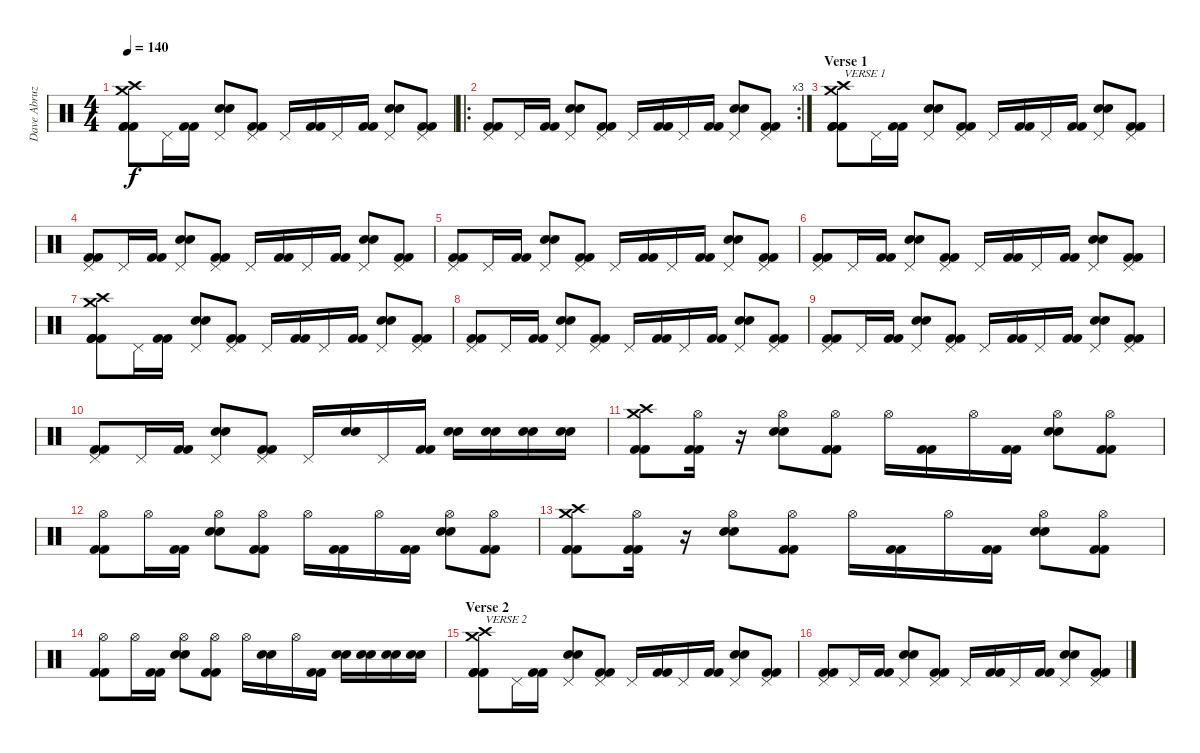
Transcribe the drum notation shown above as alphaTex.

\track ("Dave Abruzzese" "Dave Abruz") {instrument percussion}
\staff {score}
\articulation defaults
\ts (4 4)
\tempo 140
\clef neutral
\ks c
("Crash medium (hit)" "Kick (hit) 2" "Kick (hit) 2" "Crash high (hit)" "Kick (hit) 2").8{dy f} "Pedal Hi-Hat (hit)".16 ("Kick (hit) 2" "Kick (hit) 2").16 ("Electric Snare (hit)" "Electric Snare (hit)" "Pedal Hi-Hat (hit)").8 ("Kick (hit) 2" "Kick (hit) 2" "Pedal Hi-Hat (hit)").8 "Pedal Hi-Hat (hit)".16 ("Kick (hit) 2" "Kick (hit) 2").16 "Pedal Hi-Hat (hit)".16 ("Kick (hit) 2" "Kick (hit) 2").16 ("Electric Snare (hit)" "Electric Snare (hit)" "Pedal Hi-Hat (hit)").8 ("Kick (hit) 2" "Kick (hit) 2" "Pedal Hi-Hat (hit)").8 |
\ro
\rc 3
("Kick (hit) 2" "Kick (hit) 2" "Pedal Hi-Hat (hit)").8 "Pedal Hi-Hat (hit)".16 ("Kick (hit) 2" "Kick (hit) 2").16 ("Electric Snare (hit)" "Electric Snare (hit)" "Pedal Hi-Hat (hit)").8 ("Kick (hit) 2" "Kick (hit) 2" "Pedal Hi-Hat (hit)").8 "Pedal Hi-Hat (hit)".16 ("Kick (hit) 2" "Kick (hit) 2").16 "Pedal Hi-Hat (hit)".16 ("Kick (hit) 2" "Kick (hit) 2").16 ("Electric Snare (hit)" "Electric Snare (hit)" "Pedal Hi-Hat (hit)").8 ("Kick (hit) 2" "Kick (hit) 2" "Pedal Hi-Hat (hit)").8 |
\section ("" "Verse 1")
("Crash medium (hit)" "Kick (hit) 2" "Kick (hit) 2" "Crash high (hit)" "Kick (hit) 2").8{txt "VERSE 1"} "Pedal Hi-Hat (hit)".16 ("Kick (hit) 2" "Kick (hit) 2").16 ("Electric Snare (hit)" "Electric Snare (hit)" "Pedal Hi-Hat (hit)").8 ("Kick (hit) 2" "Kick (hit) 2" "Pedal Hi-Hat (hit)").8 "Pedal Hi-Hat (hit)".16 ("Kick (hit) 2" "Kick (hit) 2").16 "Pedal Hi-Hat (hit)".16 ("Kick (hit) 2" "Kick (hit) 2").16 ("Electric Snare (hit)" "Electric Snare (hit)" "Pedal Hi-Hat (hit)").8 ("Kick (hit) 2" "Kick (hit) 2" "Pedal Hi-Hat (hit)").8 |
("Kick (hit) 2" "Kick (hit) 2" "Pedal Hi-Hat (hit)").8 "Pedal Hi-Hat (hit)".16 ("Kick (hit) 2" "Kick (hit) 2").16 ("Electric Snare (hit)" "Electric Snare (hit)" "Pedal Hi-Hat (hit)").8 ("Kick (hit) 2" "Kick (hit) 2" "Pedal Hi-Hat (hit)").8 "Pedal Hi-Hat (hit)".16 ("Kick (hit) 2" "Kick (hit) 2").16 "Pedal Hi-Hat (hit)".16 ("Kick (hit) 2" "Kick (hit) 2").16 ("Electric Snare (hit)" "Electric Snare (hit)" "Pedal Hi-Hat (hit)").8 ("Kick (hit) 2" "Kick (hit) 2" "Pedal Hi-Hat (hit)").8 |
("Kick (hit) 2" "Kick (hit) 2" "Pedal Hi-Hat (hit)").8 "Pedal Hi-Hat (hit)".16 ("Kick (hit) 2" "Kick (hit) 2").16 ("Electric Snare (hit)" "Electric Snare (hit)" "Pedal Hi-Hat (hit)").8 ("Kick (hit) 2" "Kick (hit) 2" "Pedal Hi-Hat (hit)").8 "Pedal Hi-Hat (hit)".16 ("Kick (hit) 2" "Kick (hit) 2").16 "Pedal Hi-Hat (hit)".16 ("Kick (hit) 2" "Kick (hit) 2").16 ("Electric Snare (hit)" "Electric Snare (hit)" "Pedal Hi-Hat (hit)").8 ("Kick (hit) 2" "Kick (hit) 2" "Pedal Hi-Hat (hit)").8 |
("Kick (hit) 2" "Kick (hit) 2" "Pedal Hi-Hat (hit)").8 "Pedal Hi-Hat (hit)".16 ("Kick (hit) 2" "Kick (hit) 2").16 ("Electric Snare (hit)" "Electric Snare (hit)" "Pedal Hi-Hat (hit)").8 ("Kick (hit) 2" "Kick (hit) 2" "Pedal Hi-Hat (hit)").8 "Pedal Hi-Hat (hit)".16 ("Kick (hit) 2" "Kick (hit) 2").16 "Pedal Hi-Hat (hit)".16 ("Kick (hit) 2" "Kick (hit) 2").16 ("Electric Snare (hit)" "Electric Snare (hit)" "Pedal Hi-Hat (hit)").8 ("Kick (hit) 2" "Kick (hit) 2" "Pedal Hi-Hat (hit)").8 |
("Crash medium (hit)" "Kick (hit) 2" "Kick (hit) 2" "Crash high (hit)" "Kick (hit) 2").8 "Pedal Hi-Hat (hit)".16 ("Kick (hit) 2" "Kick (hit) 2").16 ("Electric Snare (hit)" "Electric Snare (hit)" "Pedal Hi-Hat (hit)").8 ("Kick (hit) 2" "Kick (hit) 2" "Pedal Hi-Hat (hit)").8 "Pedal Hi-Hat (hit)".16 ("Kick (hit) 2" "Kick (hit) 2").16 "Pedal Hi-Hat (hit)".16 ("Kick (hit) 2" "Kick (hit) 2").16 ("Electric Snare (hit)" "Electric Snare (hit)" "Pedal Hi-Hat (hit)").8 ("Kick (hit) 2" "Kick (hit) 2" "Pedal Hi-Hat (hit)").8 |
("Kick (hit) 2" "Kick (hit) 2" "Pedal Hi-Hat (hit)").8 "Pedal Hi-Hat (hit)".16 ("Kick (hit) 2" "Kick (hit) 2").16 ("Electric Snare (hit)" "Electric Snare (hit)" "Pedal Hi-Hat (hit)").8 ("Kick (hit) 2" "Kick (hit) 2" "Pedal Hi-Hat (hit)").8 "Pedal Hi-Hat (hit)".16 ("Kick (hit) 2" "Kick (hit) 2").16 "Pedal Hi-Hat (hit)".16 ("Kick (hit) 2" "Kick (hit) 2").16 ("Electric Snare (hit)" "Electric Snare (hit)" "Pedal Hi-Hat (hit)").8 ("Kick (hit) 2" "Kick (hit) 2" "Pedal Hi-Hat (hit)").8 |
("Kick (hit) 2" "Kick (hit) 2" "Pedal Hi-Hat (hit)").8 "Pedal Hi-Hat (hit)".16 ("Kick (hit) 2" "Kick (hit) 2").16 ("Electric Snare (hit)" "Electric Snare (hit)" "Pedal Hi-Hat (hit)").8 ("Kick (hit) 2" "Kick (hit) 2" "Pedal Hi-Hat (hit)").8 "Pedal Hi-Hat (hit)".16 ("Kick (hit) 2" "Kick (hit) 2").16 "Pedal Hi-Hat (hit)".16 ("Kick (hit) 2" "Kick (hit) 2").16 ("Electric Snare (hit)" "Electric Snare (hit)" "Pedal Hi-Hat (hit)").8 ("Kick (hit) 2" "Kick (hit) 2" "Pedal Hi-Hat (hit)").8 |
("Kick (hit) 2" "Kick (hit) 2" "Pedal Hi-Hat (hit)").8 "Pedal Hi-Hat (hit)".16 ("Kick (hit) 2" "Kick (hit) 2").16 ("Electric Snare (hit)" "Electric Snare (hit)" "Pedal Hi-Hat (hit)").8 ("Kick (hit) 2" "Kick (hit) 2" "Pedal Hi-Hat (hit)").8 "Pedal Hi-Hat (hit)".16 ("Electric Snare (hit)" "Electric Snare (hit)").16 "Pedal Hi-Hat (hit)".16 ("Kick (hit) 2" "Kick (hit) 2").16 ("Electric Snare (hit)" "Electric Snare (hit)").16 ("Electric Snare (hit)" "Electric Snare (hit)").16 ("Electric Snare (hit)" "Electric Snare (hit)").16 ("Electric Snare (hit)" "Electric Snare (hit)").16 |
("Crash medium (hit)" "Kick (hit) 2" "Kick (hit) 2" "Crash high (hit)").8 ("Kick (hit) 2" "Kick (hit) 2" "Hi-Hat (open)").16 r.16 ("Electric Snare (hit)" "Electric Snare (hit)" "Hi-Hat (open)").8 ("Kick (hit) 2" "Kick (hit) 2" "Hi-Hat (open)").8 "Hi-Hat (open)".16 ("Kick (hit) 2" "Kick (hit) 2").16 "Hi-Hat (open)".16 ("Kick (hit) 2" "Kick (hit) 2").16 ("Electric Snare (hit)" "Electric Snare (hit)" "Hi-Hat (open)").8 ("Kick (hit) 2" "Kick (hit) 2" "Hi-Hat (open)").8 |
("Kick (hit) 2" "Kick (hit) 2" "Hi-Hat (open)").8 "Hi-Hat (open)".16 ("Kick (hit) 2" "Kick (hit) 2").16 ("Electric Snare (hit)" "Electric Snare (hit)" "Hi-Hat (open)").8 ("Kick (hit) 2" "Kick (hit) 2" "Hi-Hat (open)").8 "Hi-Hat (open)".16 ("Kick (hit) 2" "Kick (hit) 2").16 "Hi-Hat (open)".16 ("Kick (hit) 2" "Kick (hit) 2").16 ("Electric Snare (hit)" "Electric Snare (hit)" "Hi-Hat (open)").8 ("Kick (hit) 2" "Kick (hit) 2" "Hi-Hat (open)").8 |
("Crash medium (hit)" "Kick (hit) 2" "Kick (hit) 2" "Crash high (hit)").8 ("Kick (hit) 2" "Kick (hit) 2" "Hi-Hat (open)").16 r.16 ("Electric Snare (hit)" "Electric Snare (hit)" "Hi-Hat (open)").8 ("Kick (hit) 2" "Kick (hit) 2" "Hi-Hat (open)").8 "Hi-Hat (open)".16 ("Kick (hit) 2" "Kick (hit) 2").16 "Hi-Hat (open)".16 ("Kick (hit) 2" "Kick (hit) 2").16 ("Electric Snare (hit)" "Electric Snare (hit)" "Hi-Hat (open)").8 ("Kick (hit) 2" "Kick (hit) 2" "Hi-Hat (open)").8 |
("Kick (hit) 2" "Kick (hit) 2" "Hi-Hat (open)").8 "Hi-Hat (open)".16 ("Kick (hit) 2" "Kick (hit) 2").16 ("Electric Snare (hit)" "Electric Snare (hit)" "Hi-Hat (open)").8 ("Kick (hit) 2" "Kick (hit) 2" "Hi-Hat (open)").8 "Hi-Hat (open)".16 ("Electric Snare (hit)" "Electric Snare (hit)").16 "Hi-Hat (open)".16 ("Kick (hit) 2" "Kick (hit) 2").16 ("Electric Snare (hit)" "Electric Snare (hit)").16 ("Electric Snare (hit)" "Electric Snare (hit)").16 ("Electric Snare (hit)" "Electric Snare (hit)").16 ("Electric Snare (hit)" "Electric Snare (hit)").16 |
\section ("" "Verse 2")
("Crash medium (hit)" "Kick (hit) 2" "Kick (hit) 2" "Crash high (hit)" "Kick (hit) 2").8{txt "VERSE 2"} "Pedal Hi-Hat (hit)".16 ("Kick (hit) 2" "Kick (hit) 2").16 ("Electric Snare (hit)" "Electric Snare (hit)" "Pedal Hi-Hat (hit)").8 ("Kick (hit) 2" "Kick (hit) 2" "Pedal Hi-Hat (hit)").8 "Pedal Hi-Hat (hit)".16 ("Kick (hit) 2" "Kick (hit) 2").16 "Pedal Hi-Hat (hit)".16 ("Kick (hit) 2" "Kick (hit) 2").16 ("Electric Snare (hit)" "Electric Snare (hit)" "Pedal Hi-Hat (hit)").8 ("Kick (hit) 2" "Kick (hit) 2" "Pedal Hi-Hat (hit)").8 |
("Kick (hit) 2" "Kick (hit) 2" "Pedal Hi-Hat (hit)").8 "Pedal Hi-Hat (hit)".16 ("Kick (hit) 2" "Kick (hit) 2").16 ("Electric Snare (hit)" "Electric Snare (hit)" "Pedal Hi-Hat (hit)").8 ("Kick (hit) 2" "Kick (hit) 2" "Pedal Hi-Hat (hit)").8 "Pedal Hi-Hat (hit)".16 ("Kick (hit) 2" "Kick (hit) 2").16 "Pedal Hi-Hat (hit)".16 ("Kick (hit) 2" "Kick (hit) 2").16 ("Electric Snare (hit)" "Electric Snare (hit)" "Pedal Hi-Hat (hit)").8 ("Kick (hit) 2" "Kick (hit) 2" "Pedal Hi-Hat (hit)").8
